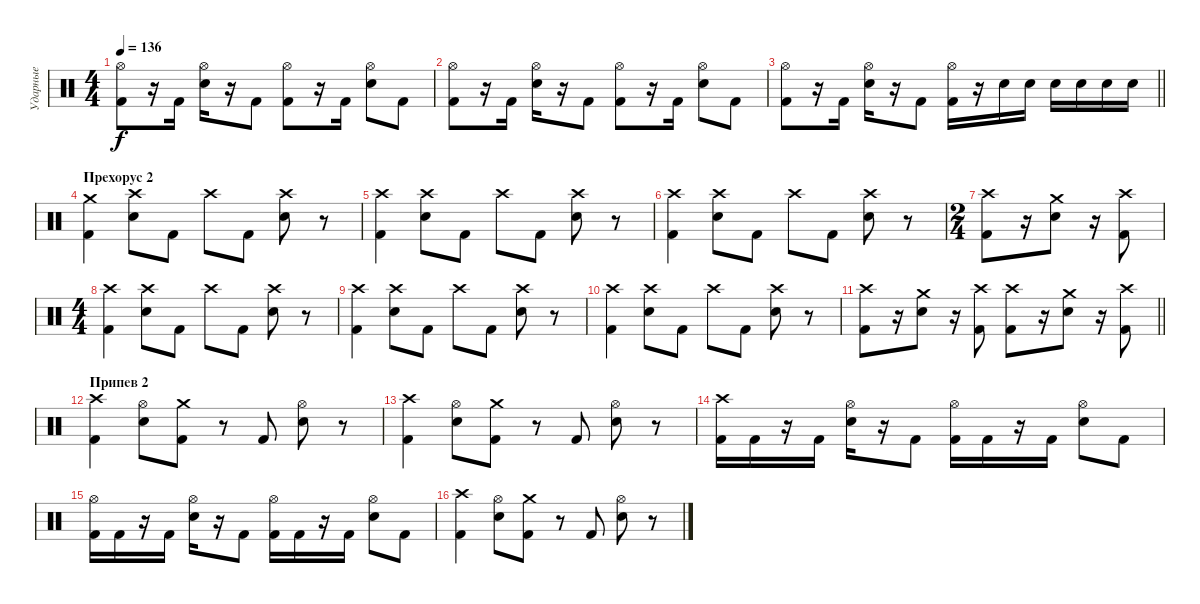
\track ("Ударные" "Ударные") {instrument percussion}
\staff {score}
\articulation defaults
\ts (4 4)
\tempo 136
\clef neutral
\ks c
("Hi-Hat (open)" "Kick (hit) 2").8{dy f} r.16 "Kick (hit) 2".16 ("Hi-Hat (open)" "Snare (hit) 2").16 r.16 "Kick (hit) 2".8 ("Hi-Hat (open)" "Kick (hit) 2").8 r.16 "Kick (hit) 2".16 ("Hi-Hat (open)" "Snare (hit) 2").8 "Kick (hit) 2".8 |
("Hi-Hat (open)" "Kick (hit) 2").8 r.16 "Kick (hit) 2".16 ("Hi-Hat (open)" "Snare (hit) 2").16 r.16 "Kick (hit) 2".8 ("Hi-Hat (open)" "Kick (hit) 2").8 r.16 "Kick (hit) 2".16 ("Hi-Hat (open)" "Snare (hit) 2").8 "Kick (hit) 2".8 |
\barLineRight lightlight
("Hi-Hat (open)" "Kick (hit) 2").8 r.16 "Kick (hit) 2".16 ("Hi-Hat (open)" "Snare (hit) 2").16 r.16 "Kick (hit) 2".8 ("Hi-Hat (open)" "Kick (hit) 2").16 r.16 "Snare (hit) 2".16 "Snare (hit) 2".16 "Snare (hit) 2".16 "Snare (hit) 2".16 "Snare (hit) 2".16 "Snare (hit) 2".16 |
\section ("" "Прехорус 2")
("Crash medium (hit)" "Kick (hit) 2").4 ("Crash high (hit)" "Snare (hit) 2").8 "Kick (hit) 2".8 "Crash high (hit)".8 "Kick (hit) 2".8 ("Crash high (hit)" "Snare (hit) 2").8 r.8 |
("Crash high (hit)" "Kick (hit) 2").4 ("Crash high (hit)" "Snare (hit) 2").8 "Kick (hit) 2".8 "Crash high (hit)".8 "Kick (hit) 2".8 ("Crash high (hit)" "Snare (hit) 2").8 r.8 |
("Crash high (hit)" "Kick (hit) 2").4 ("Crash high (hit)" "Snare (hit) 2").8 "Kick (hit) 2".8 "Crash high (hit)".8 "Kick (hit) 2".8 ("Crash high (hit)" "Snare (hit) 2").8 r.8 |
\ts (2 4)
("Crash high (hit)" "Kick (hit) 2").8 r.16 ("Crash medium (hit)" "Snare (hit) 2").8 r.16 ("Crash high (hit)" "Kick (hit) 2").8 |
\ts (4 4)
("Crash high (hit)" "Kick (hit) 2").4 ("Crash high (hit)" "Snare (hit) 2").8 "Kick (hit) 2".8 "Crash high (hit)".8 "Kick (hit) 2".8 ("Crash high (hit)" "Snare (hit) 2").8 r.8 |
("Crash high (hit)" "Kick (hit) 2").4 ("Crash high (hit)" "Snare (hit) 2").8 "Kick (hit) 2".8 "Crash high (hit)".8 "Kick (hit) 2".8 ("Crash high (hit)" "Snare (hit) 2").8 r.8 |
("Crash high (hit)" "Kick (hit) 2").4 ("Crash high (hit)" "Snare (hit) 2").8 "Kick (hit) 2".8 "Crash high (hit)".8 "Kick (hit) 2".8 ("Crash high (hit)" "Snare (hit) 2").8 r.8 |
\barLineRight lightlight
("Crash high (hit)" "Kick (hit) 2").8 r.16 ("Crash medium (hit)" "Snare (hit) 2").8 r.16 ("Crash high (hit)" "Kick (hit) 2").8 ("Crash high (hit)" "Kick (hit) 2").8 r.16 ("Crash medium (hit)" "Snare (hit) 2").8 r.16 ("Crash high (hit)" "Kick (hit) 2").8 |
\section ("" "Припев 2")
("Crash high (hit)" "Kick (hit) 2").4 ("Hi-Hat (open)" "Snare (hit) 2").8 ("Crash medium (hit)" "Kick (hit) 2").8 r.8 "Kick (hit) 2".8 ("Hi-Hat (open)" "Snare (hit) 2").8 r.8 |
("Crash high (hit)" "Kick (hit) 2").4 ("Hi-Hat (open)" "Snare (hit) 2").8 ("Crash medium (hit)" "Kick (hit) 2").8 r.8 "Kick (hit) 2".8 ("Hi-Hat (open)" "Snare (hit) 2").8 r.8 |
("Crash high (hit)" "Kick (hit) 2").16 "Kick (hit) 2".16 r.16 "Kick (hit) 2".16 ("Hi-Hat (open)" "Snare (hit) 2").16 r.16 "Kick (hit) 2".8 ("Hi-Hat (open)" "Kick (hit) 2").16 "Kick (hit) 2".16 r.16 "Kick (hit) 2".16 ("Hi-Hat (open)" "Snare (hit) 2").8 "Kick (hit) 2".8 |
("Hi-Hat (open)" "Kick (hit) 2").16 "Kick (hit) 2".16 r.16 "Kick (hit) 2".16 ("Hi-Hat (open)" "Snare (hit) 2").16 r.16 "Kick (hit) 2".8 ("Hi-Hat (open)" "Kick (hit) 2").16 "Kick (hit) 2".16 r.16 "Kick (hit) 2".16 ("Hi-Hat (open)" "Snare (hit) 2").8 "Kick (hit) 2".8 |
("Crash high (hit)" "Kick (hit) 2").4 ("Hi-Hat (open)" "Snare (hit) 2").8 ("Crash medium (hit)" "Kick (hit) 2").8 r.8 "Kick (hit) 2".8 ("Hi-Hat (open)" "Snare (hit) 2").8 r.8
